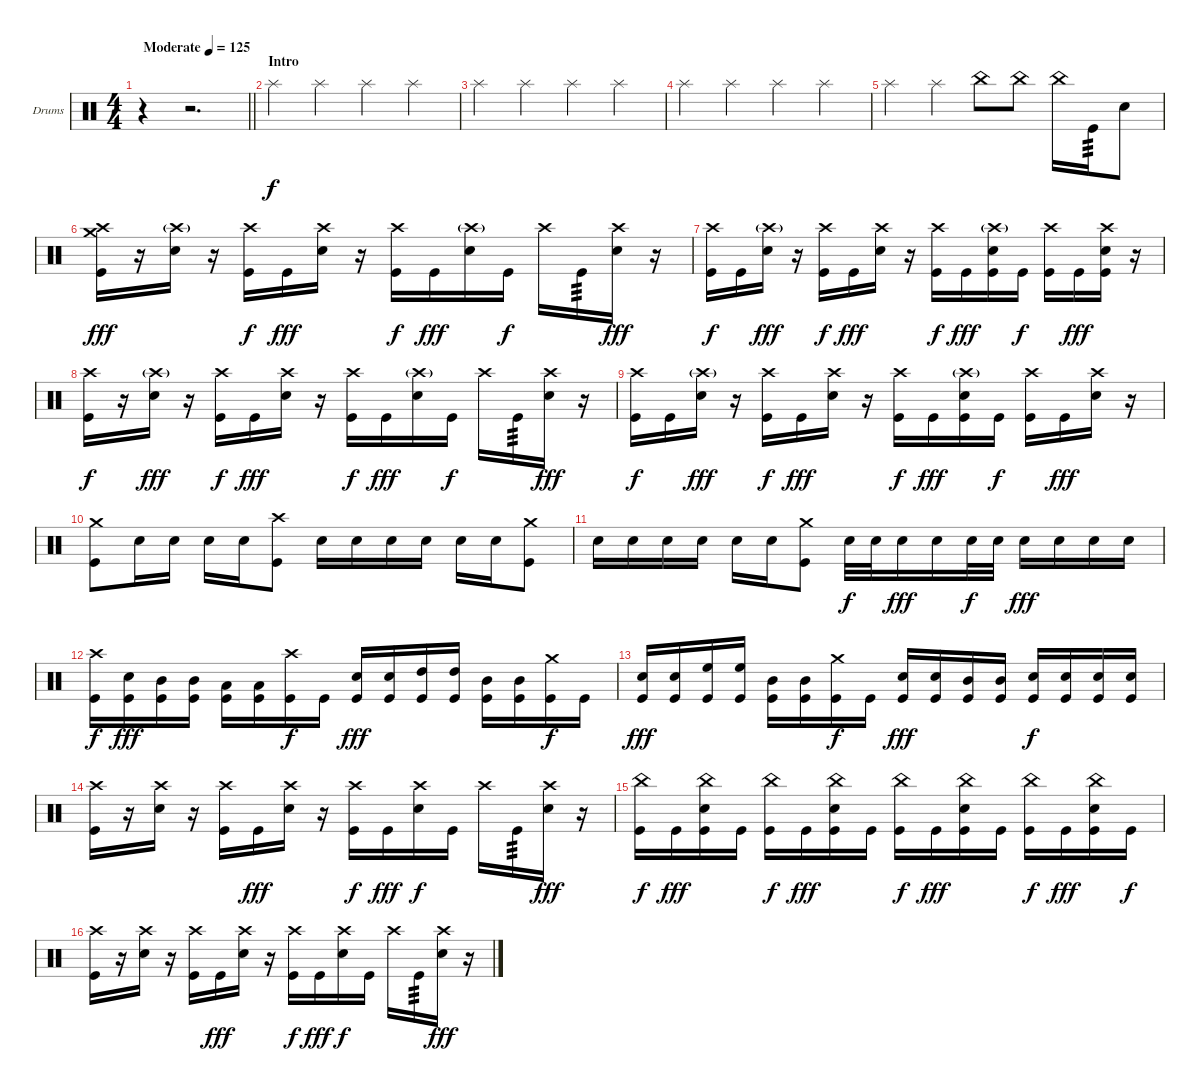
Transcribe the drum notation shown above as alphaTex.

\bracketExtendMode groupsimilarinstruments
\firstSystemTrackNameOrientation horizontal
\otherSystemsTrackNameOrientation horizontal
\track ("Drumkit" "Drums") {instrument percussion}
\staff {score}
\articulation defaults
\ts (4 4)
\beaming (8 2 2 2 2)
\tempo (125 "Moderate")
\clef neutral
\barLineRight lightlight
\ks c
r.4{dy f} r.2{d} |
\section ("" "Intro")
"Splash (hit)".4 "Splash (hit)".4 "Splash (hit)".4 "Splash (hit)".4 |
"Splash (hit)".4 "Splash (hit)".4 "Splash (hit)".4 "Splash (hit)".4 |
"Splash (hit)".4 "Splash (hit)".4 "Splash (hit)".4 "Splash (hit)".4 |
"Splash (hit)".4 "Splash (hit)".4 "China (hit)".8 "China (hit)".8 "China (hit)".16 "Kick (hit)".16{tp 3} "Snare (hit) 2".8 |
("Crash high (hit)" "Crash medium (hit)" "Kick (hit)").16{dy fff} r.16 ("Crash high (hit)"{g} "Snare (hit) 2").16 r.16 ("Crash high (hit)" "Kick (hit)").16{dy f} "Kick (hit)".16{dy fff} ("Crash high (hit)" "Snare (hit) 2").16 r.16 ("Crash high (hit)" "Kick (hit)").16{dy f} "Kick (hit)".16{dy fff} ("Crash high (hit)"{g} "Snare (hit) 2").16 "Kick (hit)".16{dy f} "Crash high (hit)".16 "Kick (hit)".16{tp 3} ("Crash high (hit)" "Snare (hit) 2").16{dy fff} r.16 |
("Crash high (hit)" "Kick (hit)").16{dy f} "Kick (hit)".16 ("Crash high (hit)"{g} "Snare (hit) 2").16{dy fff} r.16 ("Crash high (hit)" "Kick (hit)").16{dy f} "Kick (hit)".16{dy fff} ("Crash high (hit)" "Snare (hit) 2").16 r.16 ("Crash high (hit)" "Kick (hit)").16{dy f} "Kick (hit)".16{dy fff} ("Crash high (hit)"{g} "Snare (hit) 2" "Kick (hit)").16 "Kick (hit)".16{dy f} ("Crash high (hit)" "Kick (hit)").16 "Kick (hit)".16{dy fff} ("Crash high (hit)" "Snare (hit) 2" "Kick (hit)").16 r.16 |
("Crash high (hit)" "Kick (hit)").16{dy f} r.16 ("Crash high (hit)"{g} "Snare (hit) 2").16{dy fff} r.16 ("Crash high (hit)" "Kick (hit)").16{dy f} "Kick (hit)".16{dy fff} ("Crash high (hit)" "Snare (hit) 2").16 r.16 ("Crash high (hit)" "Kick (hit)").16{dy f} "Kick (hit)".16{dy fff} ("Crash high (hit)"{g} "Snare (hit) 2").16 "Kick (hit)".16{dy f} "Crash high (hit)".16 "Kick (hit)".16{tp 3} ("Crash high (hit)" "Snare (hit) 2").16{dy fff} r.16 |
("Crash high (hit)" "Kick (hit)").16{dy f} "Kick (hit)".16 ("Crash high (hit)"{g} "Snare (hit) 2").16{dy fff} r.16 ("Crash high (hit)" "Kick (hit)").16{dy f} "Kick (hit)".16{dy fff} ("Crash high (hit)" "Snare (hit) 2").16 r.16 ("Crash high (hit)" "Kick (hit)").16{dy f} "Kick (hit)".16{dy fff} ("Crash high (hit)"{g} "Snare (hit) 2" "Kick (hit)").16 "Kick (hit)".16{dy f} ("Crash high (hit)" "Kick (hit)").16 "Kick (hit)".16{dy fff} ("Crash high (hit)" "Snare (hit) 2").16 r.16 |
("Crash medium (hit)" "Kick (hit)").8 "Snare (hit) 2".16 "Snare (hit) 2".16 "Snare (hit) 2".16 "Snare (hit) 2".16 ("Crash high (hit)" "Kick (hit)").8 "Snare (hit) 2".16 "Snare (hit) 2".16 "Snare (hit) 2".16 "Snare (hit) 2".16 "Snare (hit) 2".16 "Snare (hit) 2".16 ("Crash medium (hit)" "Kick (hit)").8 |
"Snare (hit) 2".16 "Snare (hit) 2".16 "Snare (hit) 2".16 "Snare (hit) 2".16 "Snare (hit) 2".16 "Snare (hit) 2".16 ("Crash medium (hit)" "Kick (hit)").8 "Snare (hit) 2".32{dy f} "Snare (hit) 2".32 "Snare (hit) 2".16{dy fff} "Snare (hit) 2".16 "Snare (hit) 2".32{dy f} "Snare (hit) 2".32 "Snare (hit) 2".16{dy fff} "Snare (hit) 2".16 "Snare (hit) 2".16 "Snare (hit) 2".16 |
("Crash high (hit)" "Kick (hit)").16{dy f} ("Snare (hit) 2" "Kick (hit)").16{dy fff} ("Mid Tom (hit)" "Kick (hit)").16 ("Mid Tom (hit)" "Kick (hit)").16 ("Low Tom (hit)" "Kick (hit)").16 ("Low Tom (hit)" "Kick (hit)").16 ("Crash high (hit)" "Kick (hit)").16{dy f} "Kick (hit)".16 ("Snare (hit) 2" "Kick (hit)").16{dy fff} ("Snare (hit) 2" "Kick (hit)").16 ("High Tom (hit)" "Kick (hit)").16 ("High Tom (hit)" "Kick (hit)").16 ("Mid Tom (hit)" "Kick (hit)").16 ("Mid Tom (hit)" "Kick (hit)").16 ("Crash medium (hit)" "Kick (hit)").16{dy f} "Kick (hit)".16 |
("Snare (hit) 2" "Kick (hit)").16{dy fff} ("Snare (hit) 2" "Kick (hit)").16 ("High Floor Tom (hit)" "Kick (hit)").16 ("High Floor Tom (hit)" "Kick (hit)").16 ("Mid Tom (hit)" "Kick (hit)").16 ("Mid Tom (hit)" "Kick (hit)").16 ("Crash medium (hit)" "Kick (hit)").16{dy f} "Kick (hit)".16 ("Snare (hit) 2" "Kick (hit)").16{dy fff} ("Snare (hit) 2" "Kick (hit)").16 ("Mid Tom (hit)" "Kick (hit)").16 ("Mid Tom (hit)" "Kick (hit)").16 ("Snare (hit) 2" "Kick (hit)").16{dy f} ("Snare (hit) 2" "Kick (hit)").16 ("Snare (hit) 2" "Kick (hit)").16 ("Snare (hit) 2" "Kick (hit)").16 |
("Crash high (hit)" "Kick (hit)").16 r.16 ("Crash high (hit)" "Snare (hit) 2").16 r.16 ("Crash high (hit)" "Kick (hit)").16 "Kick (hit)".16{dy fff} ("Crash high (hit)" "Snare (hit) 2").16 r.16 ("Crash high (hit)" "Kick (hit)").16{dy f} "Kick (hit)".16{dy fff} ("Crash high (hit)" "Snare (hit) 2").16{dy f} "Kick (hit)".16 "Crash high (hit)".16 "Kick (hit)".16{tp 3} ("Crash high (hit)" "Snare (hit) 2").16{dy fff} r.16 |
("China (hit)" "Kick (hit)").16{dy f} "Kick (hit)".16{dy fff} ("China (hit)" "Snare (hit) 2" "Kick (hit)").16 "Kick (hit)".16 ("China (hit)" "Kick (hit)").16{dy f} "Kick (hit)".16{dy fff} ("China (hit)" "Snare (hit) 2" "Kick (hit)").16 "Kick (hit)".16 ("China (hit)" "Kick (hit)").16{dy f} "Kick (hit)".16{dy fff} ("China (hit)" "Snare (hit) 2" "Kick (hit)").16 "Kick (hit)".16 ("China (hit)" "Kick (hit)").16{dy f} "Kick (hit)".16{dy fff} ("China (hit)" "Snare (hit) 2" "Kick (hit)").16 "Kick (hit)".16{dy f} |
("Crash high (hit)" "Kick (hit)").16 r.16 ("Crash high (hit)" "Snare (hit) 2").16 r.16 ("Crash high (hit)" "Kick (hit)").16 "Kick (hit)".16{dy fff} ("Crash high (hit)" "Snare (hit) 2").16 r.16 ("Crash high (hit)" "Kick (hit)").16{dy f} "Kick (hit)".16{dy fff} ("Crash high (hit)" "Snare (hit) 2").16{dy f} "Kick (hit)".16 "Crash high (hit)".16 "Kick (hit)".16{tp 3} ("Crash high (hit)" "Snare (hit) 2").16{dy fff} r.16
